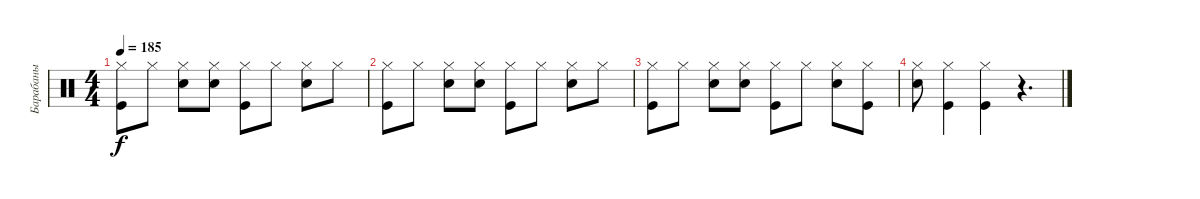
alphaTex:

\track ("Барабаны" "Барабаны") {instrument percussion}
\staff {score}
\articulation defaults
\ts (4 4)
\tempo 185
\clef neutral
\ks c
("Kick (hit)" "Hi-Hat (closed)").8{dy f} "Hi-Hat (closed)".8 ("Snare (hit) 2" "Hi-Hat (closed)").8 ("Snare (hit) 2" "Hi-Hat (closed)").8 ("Kick (hit)" "Hi-Hat (closed)").8 "Hi-Hat (closed)".8 ("Snare (hit) 2" "Hi-Hat (closed)").8 "Hi-Hat (closed)".8 |
("Kick (hit)" "Hi-Hat (closed)").8 "Hi-Hat (closed)".8 ("Snare (hit) 2" "Hi-Hat (closed)").8 ("Snare (hit) 2" "Hi-Hat (closed)").8 ("Kick (hit)" "Hi-Hat (closed)").8 "Hi-Hat (closed)".8 ("Snare (hit) 2" "Hi-Hat (closed)").8 "Hi-Hat (closed)".8 |
("Kick (hit)" "Hi-Hat (closed)").8 "Hi-Hat (closed)".8 ("Snare (hit) 2" "Hi-Hat (closed)").8 ("Snare (hit) 2" "Hi-Hat (closed)").8 ("Kick (hit)" "Hi-Hat (closed)").8 "Hi-Hat (closed)".8 ("Snare (hit) 2" "Hi-Hat (closed)").8 ("Kick (hit)" "Hi-Hat (closed)").8 |
("Snare (hit) 2" "Hi-Hat (closed)").8 ("Kick (hit)" "Hi-Hat (closed)").4 ("Kick (hit)" "Hi-Hat (closed)").4 r.4{d}
